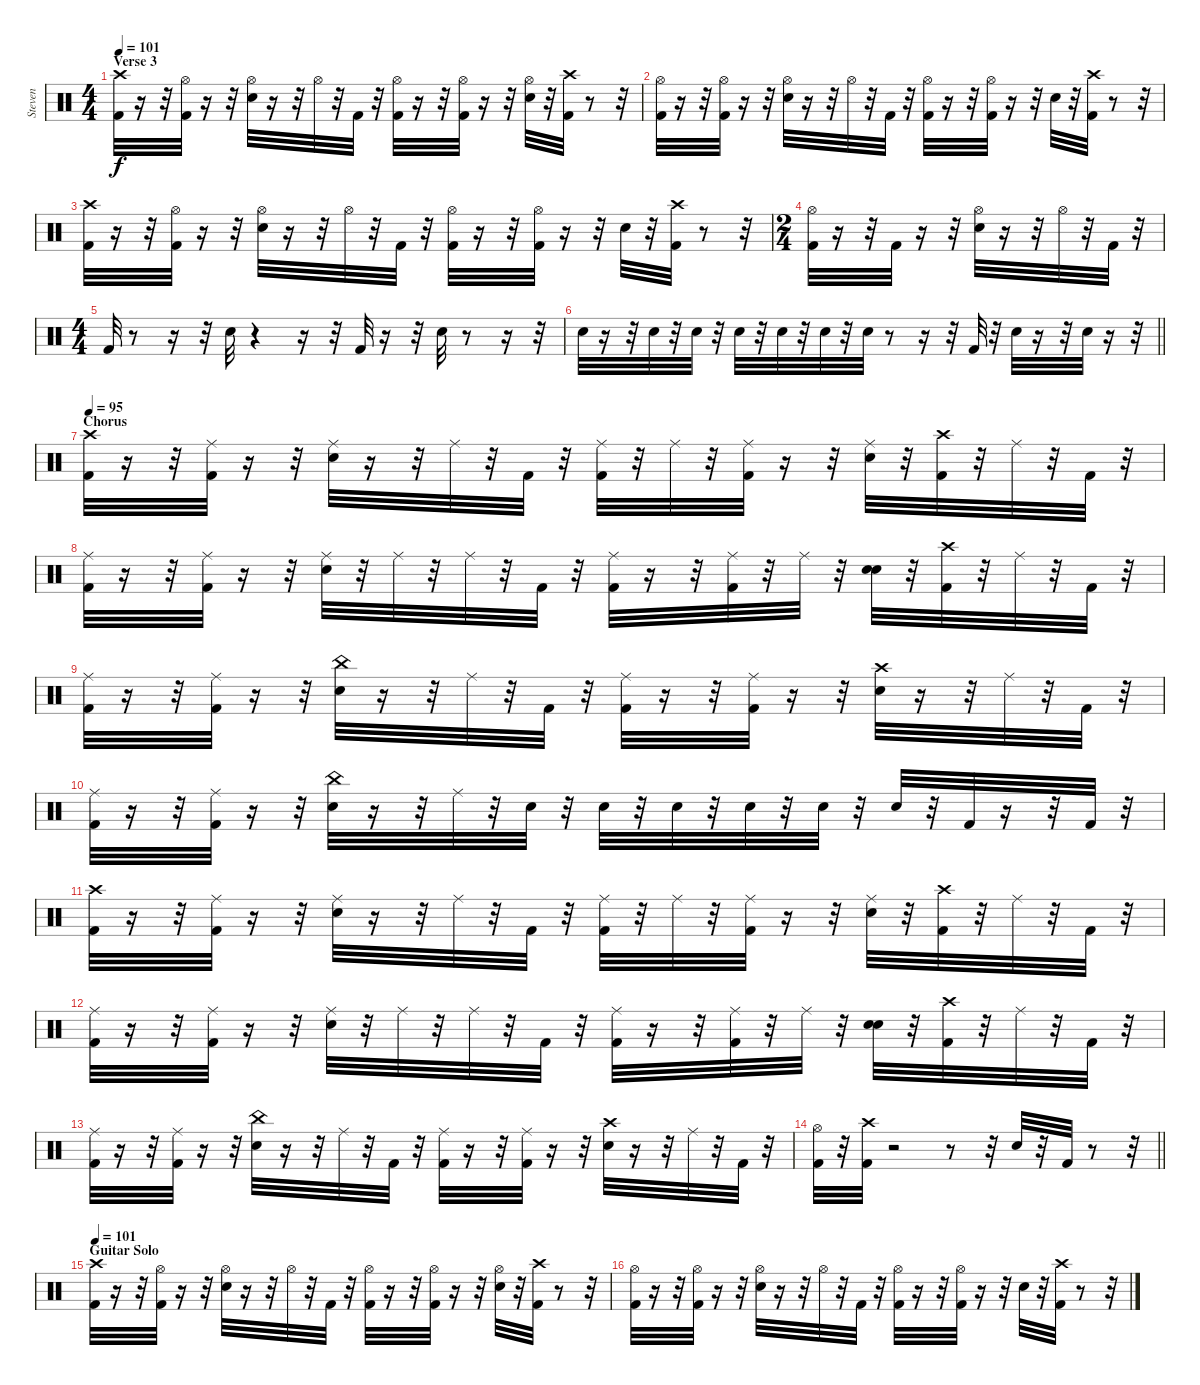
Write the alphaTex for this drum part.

\track ("Steven" "Steven") {instrument percussion}
\staff {score}
\articulation defaults
\ts (4 4)
\section ("" "Verse 3")
\tempo 101
\clef neutral
\ks c
("Crash high (hit)" "Kick (hit) 2").32{dy f} r.16 r.32 ("Hi-Hat (open)" "Kick (hit) 2").32 r.16 r.32 ("Hi-Hat (open)" "Snare (hit) 2").32 r.16 r.32 "Hi-Hat (open)".32 r.32 "Kick (hit) 2".32 r.32 ("Kick (hit) 2" "Hi-Hat (open)").32 r.16 r.32 ("Kick (hit) 2" "Hi-Hat (open)").32 r.16 r.32 ("Hi-Hat (open)" "Snare (hit) 2").32 r.32 ("Kick (hit) 2" "Crash high (hit)").32 r.8 r.32 |
("Hi-Hat (open)" "Kick (hit) 2").32 r.16 r.32 ("Kick (hit) 2" "Hi-Hat (open)").32 r.16 r.32 ("Hi-Hat (open)" "Snare (hit) 2").32 r.16 r.32 "Hi-Hat (open)".32 r.32 "Kick (hit) 2".32 r.32 ("Kick (hit) 2" "Hi-Hat (open)").32 r.16 r.32 ("Kick (hit) 2" "Hi-Hat (open)").32 r.16 r.32 "Snare (hit) 2".32 r.32 ("Kick (hit) 2" "Crash high (hit)").32 r.8 r.32 |
("Crash high (hit)" "Kick (hit) 2").32 r.16 r.32 ("Kick (hit) 2" "Hi-Hat (open)").32 r.16 r.32 ("Snare (hit) 2" "Hi-Hat (open)").32 r.16 r.32 "Hi-Hat (open)".32 r.32 "Kick (hit) 2".32 r.32 ("Kick (hit) 2" "Hi-Hat (open)").32 r.16 r.32 ("Hi-Hat (open)" "Kick (hit) 2").32 r.16 r.32 "Snare (hit) 2".32 r.32 ("Crash high (hit)" "Kick (hit) 2").32 r.8 r.32 |
\ts (2 4)
("Kick (hit) 2" "Hi-Hat (open)").32 r.16 r.32 "Kick (hit) 2".32 r.16 r.32 ("Snare (hit) 2" "Hi-Hat (open)").32 r.16 r.32 "Hi-Hat (open)".32 r.32 "Kick (hit) 2".32 r.32 |
\ts (4 4)
"Kick (hit) 2".32 r.8 r.16 r.32 "Snare (hit) 2".32 r.4 r.16 r.32 "Kick (hit) 2".32 r.16 r.32 "Snare (hit) 2".32 r.8 r.16 r.32 |
\barLineRight lightlight "Snare (hit) 2".32
r.16 r.32 "Snare (hit) 2".32 r.32 "Snare (hit) 2".32 r.32 "Snare (hit) 2".32 r.32 "Snare (hit) 2".32 r.32 "Snare (hit) 2".32 r.32 "Snare (hit) 2".32 r.8 r.16 r.32 "Kick (hit) 2".32 r.32 "Snare (hit) 2".32 r.16 r.32 "Snare (hit) 2".32 r.16 r.32 |
\section ("" "Chorus")
\tempo 95
("Crash high (hit)" "Kick (hit) 2").32 r.16 r.32 ("Kick (hit) 2" "Ride (middle)").32 r.16 r.32 ("Ride (middle)" "Snare (hit) 2").32 r.16 r.32 "Ride (middle)".32 r.32 "Kick (hit) 2".32 r.32 ("Kick (hit) 2" "Ride (middle)").32 r.32 "Ride (middle)".32 r.32 ("Ride (middle)" "Kick (hit) 2").32 r.16 r.32 ("Snare (hit) 2" "Ride (middle)").32 r.32 ("Crash high (hit)" "Kick (hit) 2").32 r.32 "Ride (middle)".32 r.32 "Kick (hit) 2".32 r.32 |
("Kick (hit) 2" "Ride (middle)").32 r.16 r.32 ("Kick (hit) 2" "Ride (middle)").32 r.16 r.32 ("Snare (hit) 2" "Ride (middle)").32 r.32 "Ride (middle)".32 r.32 "Ride (middle)".32 r.32 "Kick (hit) 2".32 r.32 ("Ride (middle)" "Kick (hit) 2").32 r.16 r.32 ("Kick (hit) 2" "Ride (middle)").32 r.32 "Ride (middle)".32 r.32 ("Electric Snare (hit)" "Snare (hit) 2").32 r.32 ("Kick (hit) 2" "Crash high (hit)").32 r.32 "Ride (middle)".32 r.32 "Kick (hit) 2".32 r.32 |
("Kick (hit) 2" "Ride (middle)").32 r.16 r.32 ("Kick (hit) 2" "Ride (middle)").32 r.16 r.32 ("China (hit)" "Snare (hit) 2").32 r.16 r.32 "Ride (middle)".32 r.32 "Kick (hit) 2".32 r.32 ("Kick (hit) 2" "Ride (middle)").32 r.16 r.32 ("Ride (middle)" "Kick (hit) 2").32 r.16 r.32 ("Snare (hit) 2" "Crash high (hit)").32 r.16 r.32 "Ride (middle)".32 r.32 "Kick (hit) 2".32 r.32 |
("Ride (middle)" "Kick (hit) 2").32 r.16 r.32 ("Kick (hit) 2" "Ride (middle)").32 r.16 r.32 ("Snare (hit) 2" "China (hit)").32 r.16 r.32 "Ride (middle)".32 r.32 "Snare (hit) 2".32 r.32 "Snare (hit) 2".32 r.32 "Snare (hit) 2".32 r.32 "Snare (hit) 2".32 r.32 "Snare (hit) 2".32 r.32 "Snare (hit) 2".32 r.32 "Kick (hit) 2".32 r.16 r.32 "Kick (hit) 2".32 r.32 |
("Crash high (hit)" "Kick (hit) 2").32 r.16 r.32 ("Kick (hit) 2" "Ride (middle)").32 r.16 r.32 ("Ride (middle)" "Snare (hit) 2").32 r.16 r.32 "Ride (middle)".32 r.32 "Kick (hit) 2".32 r.32 ("Kick (hit) 2" "Ride (middle)").32 r.32 "Ride (middle)".32 r.32 ("Ride (middle)" "Kick (hit) 2").32 r.16 r.32 ("Snare (hit) 2" "Ride (middle)").32 r.32 ("Crash high (hit)" "Kick (hit) 2").32 r.32 "Ride (middle)".32 r.32 "Kick (hit) 2".32 r.32 |
("Kick (hit) 2" "Ride (middle)").32 r.16 r.32 ("Kick (hit) 2" "Ride (middle)").32 r.16 r.32 ("Snare (hit) 2" "Ride (middle)").32 r.32 "Ride (middle)".32 r.32 "Ride (middle)".32 r.32 "Kick (hit) 2".32 r.32 ("Ride (middle)" "Kick (hit) 2").32 r.16 r.32 ("Kick (hit) 2" "Ride (middle)").32 r.32 "Ride (middle)".32 r.32 ("Electric Snare (hit)" "Snare (hit) 2").32 r.32 ("Kick (hit) 2" "Crash high (hit)").32 r.32 "Ride (middle)".32 r.32 "Kick (hit) 2".32 r.32 |
("Kick (hit) 2" "Ride (middle)").32 r.16 r.32 ("Kick (hit) 2" "Ride (middle)").32 r.16 r.32 ("China (hit)" "Snare (hit) 2").32 r.16 r.32 "Ride (middle)".32 r.32 "Kick (hit) 2".32 r.32 ("Kick (hit) 2" "Ride (middle)").32 r.16 r.32 ("Ride (middle)" "Kick (hit) 2").32 r.16 r.32 ("Snare (hit) 2" "Crash high (hit)").32 r.16 r.32 "Ride (middle)".32 r.32 "Kick (hit) 2".32 r.32 |
\barLineRight lightlight
("Hi-Hat (open)" "Kick (hit) 2").32 r.32 ("Crash high (hit)" "Kick (hit) 2").32 r.2 r.8 r.32 "Snare (hit) 2".32 r.32 "Kick (hit) 2".32 r.8 r.32 |
\section ("" "Guitar Solo")
\tempo 101
("Crash high (hit)" "Kick (hit) 2").32 r.16 r.32 ("Hi-Hat (open)" "Kick (hit) 2").32 r.16 r.32 ("Hi-Hat (open)" "Snare (hit) 2").32 r.16 r.32 "Hi-Hat (open)".32 r.32 "Kick (hit) 2".32 r.32 ("Kick (hit) 2" "Hi-Hat (open)").32 r.16 r.32 ("Kick (hit) 2" "Hi-Hat (open)").32 r.16 r.32 ("Hi-Hat (open)" "Snare (hit) 2").32 r.32 ("Kick (hit) 2" "Crash high (hit)").32 r.8 r.32 |
("Hi-Hat (open)" "Kick (hit) 2").32 r.16 r.32 ("Kick (hit) 2" "Hi-Hat (open)").32 r.16 r.32 ("Hi-Hat (open)" "Snare (hit) 2").32 r.16 r.32 "Hi-Hat (open)".32 r.32 "Kick (hit) 2".32 r.32 ("Kick (hit) 2" "Hi-Hat (open)").32 r.16 r.32 ("Kick (hit) 2" "Hi-Hat (open)").32 r.16 r.32 "Snare (hit) 2".32 r.32 ("Kick (hit) 2" "Crash high (hit)").32 r.8 r.32
